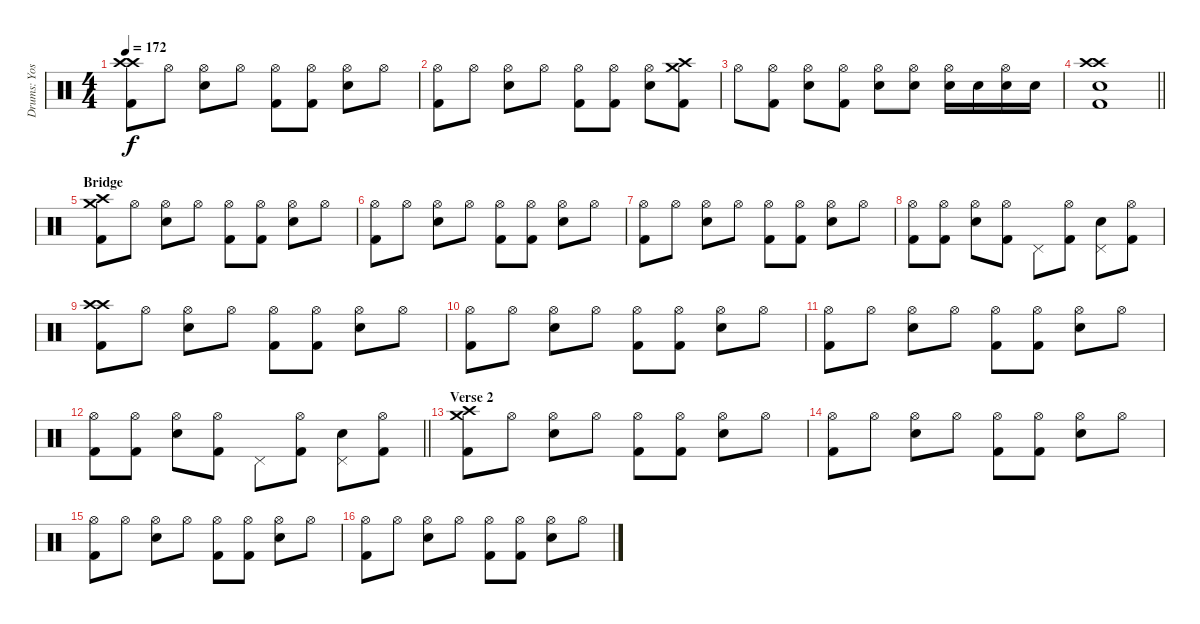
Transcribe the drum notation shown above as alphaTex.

\track ("Drums: Yoshiki" "Drums: Yos") {instrument percussion}
\staff {score}
\articulation defaults
\ts (4 4)
\tempo 172
\clef neutral
\ks c
("Crash high (hit)" "Crash high (hit)" "Kick (hit) 2").8{dy f} "Hi-Hat (open)".8 ("Hi-Hat (open)" "Snare (hit) 2").8 "Hi-Hat (open)".8 ("Hi-Hat (open)" "Kick (hit) 2").8 ("Hi-Hat (open)" "Kick (hit) 2").8 ("Hi-Hat (open)" "Snare (hit) 2").8 "Hi-Hat (open)".8 |
("Hi-Hat (open)" "Kick (hit) 2").8 "Hi-Hat (open)".8 ("Hi-Hat (open)" "Snare (hit) 2").8 "Hi-Hat (open)".8 ("Hi-Hat (open)" "Kick (hit) 2").8 ("Hi-Hat (open)" "Kick (hit) 2").8 ("Hi-Hat (open)" "Snare (hit) 2").8 ("Crash high (hit)" "Crash medium (hit)" "Kick (hit) 2").8 |
"Hi-Hat (open)".8 ("Hi-Hat (open)" "Kick (hit) 2").8 ("Hi-Hat (open)" "Snare (hit) 2").8 ("Hi-Hat (open)" "Kick (hit) 2").8 ("Hi-Hat (open)" "Snare (hit) 2").8 ("Hi-Hat (open)" "Snare (hit) 2").8 ("Hi-Hat (open)" "Snare (hit) 2").16 "Snare (hit) 2".16 ("Hi-Hat (open)" "Snare (hit) 2").16 "Snare (hit) 2".16 |
\barLineRight lightlight
("Crash high (hit)" "Crash high (hit)" "Snare (hit) 2" "Kick (hit) 2").1{volume 0} |
\section ("" "Bridge")
("Crash high (hit)" "Crash medium (hit)" "Kick (hit) 2").8{volume 11} "Hi-Hat (open)".8 ("Hi-Hat (open)" "Snare (hit) 2").8 "Hi-Hat (open)".8 ("Hi-Hat (open)" "Kick (hit) 2").8 ("Hi-Hat (open)" "Kick (hit) 2").8 ("Hi-Hat (open)" "Snare (hit) 2").8 "Hi-Hat (open)".8 |
("Hi-Hat (open)" "Kick (hit) 2").8 "Hi-Hat (open)".8 ("Hi-Hat (open)" "Snare (hit) 2").8 "Hi-Hat (open)".8 ("Hi-Hat (open)" "Kick (hit) 2").8 ("Hi-Hat (open)" "Kick (hit) 2").8 ("Hi-Hat (open)" "Snare (hit) 2").8 "Hi-Hat (open)".8 |
("Hi-Hat (open)" "Kick (hit) 2").8 "Hi-Hat (open)".8 ("Hi-Hat (open)" "Snare (hit) 2").8 "Hi-Hat (open)".8 ("Hi-Hat (open)" "Kick (hit) 2").8 ("Hi-Hat (open)" "Kick (hit) 2").8 ("Hi-Hat (open)" "Snare (hit) 2").8 "Hi-Hat (open)".8 |
("Hi-Hat (open)" "Kick (hit) 2").8 ("Hi-Hat (open)" "Kick (hit) 2").8 ("Hi-Hat (open)" "Snare (hit) 2").8 ("Hi-Hat (open)" "Kick (hit) 2").8 "Pedal Hi-Hat (hit)".8 ("Hi-Hat (open)" "Kick (hit) 2").8 ("Pedal Hi-Hat (hit)" "Snare (hit) 2").8 ("Hi-Hat (open)" "Kick (hit) 2").8 |
("Crash high (hit)" "Crash high (hit)" "Kick (hit) 2").8 "Hi-Hat (open)".8 ("Hi-Hat (open)" "Snare (hit) 2").8 "Hi-Hat (open)".8 ("Hi-Hat (open)" "Kick (hit) 2").8 ("Hi-Hat (open)" "Kick (hit) 2").8 ("Hi-Hat (open)" "Snare (hit) 2").8 "Hi-Hat (open)".8 |
("Hi-Hat (open)" "Kick (hit) 2").8 "Hi-Hat (open)".8 ("Hi-Hat (open)" "Snare (hit) 2").8 "Hi-Hat (open)".8 ("Hi-Hat (open)" "Kick (hit) 2").8 ("Hi-Hat (open)" "Kick (hit) 2").8 ("Hi-Hat (open)" "Snare (hit) 2").8 "Hi-Hat (open)".8 |
("Hi-Hat (open)" "Kick (hit) 2").8 "Hi-Hat (open)".8 ("Hi-Hat (open)" "Snare (hit) 2").8 "Hi-Hat (open)".8 ("Hi-Hat (open)" "Kick (hit) 2").8 ("Hi-Hat (open)" "Kick (hit) 2").8 ("Hi-Hat (open)" "Snare (hit) 2").8 "Hi-Hat (open)".8 |
\barLineRight lightlight
("Hi-Hat (open)" "Kick (hit) 2").8 ("Hi-Hat (open)" "Kick (hit) 2").8 ("Hi-Hat (open)" "Snare (hit) 2").8 ("Hi-Hat (open)" "Kick (hit) 2").8 "Pedal Hi-Hat (hit)".8 ("Hi-Hat (open)" "Kick (hit) 2").8 ("Pedal Hi-Hat (hit)" "Snare (hit) 2").8 ("Hi-Hat (open)" "Kick (hit) 2").8 |
\section ("" "Verse 2")
("Crash high (hit)" "Crash medium (hit)" "Kick (hit) 2").8 "Hi-Hat (open)".8 ("Hi-Hat (open)" "Snare (hit) 2").8 "Hi-Hat (open)".8 ("Hi-Hat (open)" "Kick (hit) 2").8 ("Hi-Hat (open)" "Kick (hit) 2").8 ("Hi-Hat (open)" "Snare (hit) 2").8 "Hi-Hat (open)".8 |
("Hi-Hat (open)" "Kick (hit) 2").8 "Hi-Hat (open)".8 ("Hi-Hat (open)" "Snare (hit) 2").8 "Hi-Hat (open)".8 ("Hi-Hat (open)" "Kick (hit) 2").8 ("Hi-Hat (open)" "Kick (hit) 2").8 ("Hi-Hat (open)" "Snare (hit) 2").8 "Hi-Hat (open)".8 |
("Hi-Hat (open)" "Kick (hit) 2").8 "Hi-Hat (open)".8 ("Hi-Hat (open)" "Snare (hit) 2").8 "Hi-Hat (open)".8 ("Hi-Hat (open)" "Kick (hit) 2").8 ("Hi-Hat (open)" "Kick (hit) 2").8 ("Hi-Hat (open)" "Snare (hit) 2").8 "Hi-Hat (open)".8 |
("Hi-Hat (open)" "Kick (hit) 2").8 "Hi-Hat (open)".8 ("Hi-Hat (open)" "Snare (hit) 2").8 "Hi-Hat (open)".8 ("Hi-Hat (open)" "Kick (hit) 2").8 ("Hi-Hat (open)" "Kick (hit) 2").8 ("Hi-Hat (open)" "Snare (hit) 2").8 "Hi-Hat (open)".8
